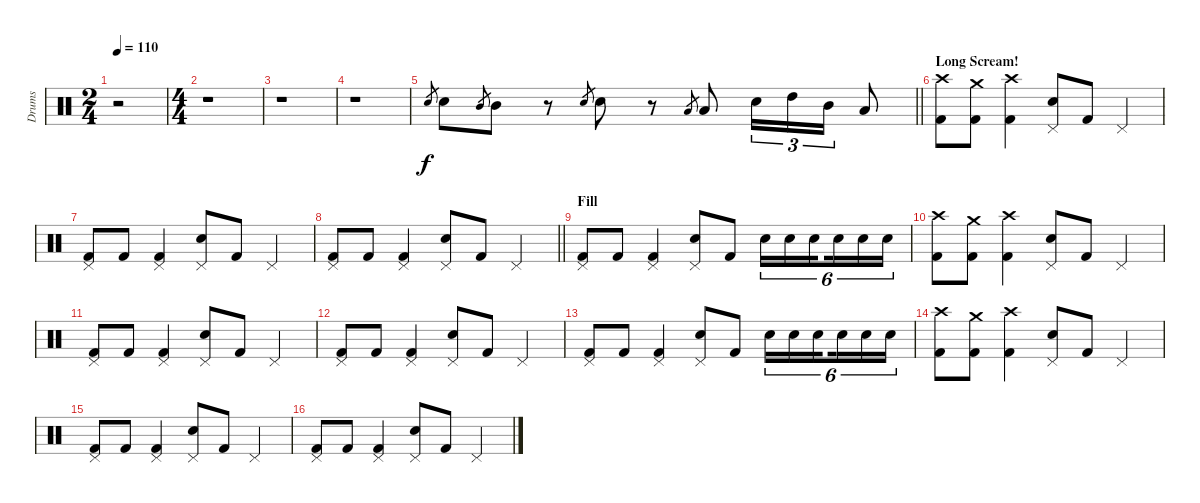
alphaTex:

\track ("Drums" "Drums") {instrument percussion}
\staff {score}
\articulation defaults
\ts (2 4)
\tempo 110
\clef neutral
\ks c
r.2{dy f} |
\ts (4 4)
r.1 |
r.1 |
r.1 |
\barLineRight lightlight "Electric Snare (hit)".8{gr} "Electric Snare (hit)".8 "Mid Tom (hit)".8{gr} "Mid Tom (hit)".8
r.8 "Electric Snare (hit)".8{gr} "Electric Snare (hit)".8 r.8 "Low Tom (hit)".8{gr} "Low Tom (hit)".8 "Electric Snare (hit)".16{tu (3 2)} "High Tom (hit)".16{tu (3 2)} "Mid Tom (hit)".16{tu (3 2)} "Low Tom (hit)".8 |
\section ("" "Long Scream!")
("Crash high (hit)" "Kick (hit) 2").8 ("Crash medium (hit)" "Kick (hit) 2").8 ("Crash high (hit)" "Kick (hit) 2").4 ("Pedal Hi-Hat (hit)" "Electric Snare (hit)").8 "Kick (hit) 2".8 "Pedal Hi-Hat (hit)".4 |
("Pedal Hi-Hat (hit)" "Kick (hit) 2").8 "Kick (hit) 2".8 ("Pedal Hi-Hat (hit)" "Kick (hit) 2").4 ("Pedal Hi-Hat (hit)" "Electric Snare (hit)").8 "Kick (hit) 2".8 "Pedal Hi-Hat (hit)".4 |
\barLineRight lightlight
("Pedal Hi-Hat (hit)" "Kick (hit) 2").8 "Kick (hit) 2".8 ("Pedal Hi-Hat (hit)" "Kick (hit) 2").4 ("Pedal Hi-Hat (hit)" "Electric Snare (hit)").8 "Kick (hit) 2".8 "Pedal Hi-Hat (hit)".4 |
\section ("" "Fill")
("Pedal Hi-Hat (hit)" "Kick (hit) 2").8 "Kick (hit) 2".8 ("Pedal Hi-Hat (hit)" "Kick (hit) 2").4 ("Pedal Hi-Hat (hit)" "Electric Snare (hit)").8 "Kick (hit) 2".8 "Electric Snare (hit)".16{tu (6 4)} "Electric Snare (hit)".16{tu (6 4)} "Electric Snare (hit)".16{tu (6 4) beam splitsecondary} "Electric Snare (hit)".16{tu (6 4)} "Electric Snare (hit)".16{tu (6 4)} "Electric Snare (hit)".16{tu (6 4)} |
("Crash high (hit)" "Kick (hit) 2").8 ("Crash medium (hit)" "Kick (hit) 2").8 ("Crash high (hit)" "Kick (hit) 2").4 ("Pedal Hi-Hat (hit)" "Electric Snare (hit)").8 "Kick (hit) 2".8 "Pedal Hi-Hat (hit)".4 |
("Pedal Hi-Hat (hit)" "Kick (hit) 2").8 "Kick (hit) 2".8 ("Pedal Hi-Hat (hit)" "Kick (hit) 2").4 ("Pedal Hi-Hat (hit)" "Electric Snare (hit)").8 "Kick (hit) 2".8 "Pedal Hi-Hat (hit)".4 |
("Pedal Hi-Hat (hit)" "Kick (hit) 2").8 "Kick (hit) 2".8 ("Pedal Hi-Hat (hit)" "Kick (hit) 2").4 ("Pedal Hi-Hat (hit)" "Electric Snare (hit)").8 "Kick (hit) 2".8 "Pedal Hi-Hat (hit)".4 |
("Pedal Hi-Hat (hit)" "Kick (hit) 2").8 "Kick (hit) 2".8 ("Pedal Hi-Hat (hit)" "Kick (hit) 2").4 ("Pedal Hi-Hat (hit)" "Electric Snare (hit)").8 "Kick (hit) 2".8 "Electric Snare (hit)".16{tu (6 4)} "Electric Snare (hit)".16{tu (6 4)} "Electric Snare (hit)".16{tu (6 4) beam splitsecondary} "Electric Snare (hit)".16{tu (6 4)} "Electric Snare (hit)".16{tu (6 4)} "Electric Snare (hit)".16{tu (6 4)} |
("Crash high (hit)" "Kick (hit) 2").8 ("Crash medium (hit)" "Kick (hit) 2").8 ("Crash high (hit)" "Kick (hit) 2").4 ("Pedal Hi-Hat (hit)" "Electric Snare (hit)").8 "Kick (hit) 2".8 "Pedal Hi-Hat (hit)".4 |
("Pedal Hi-Hat (hit)" "Kick (hit) 2").8 "Kick (hit) 2".8 ("Pedal Hi-Hat (hit)" "Kick (hit) 2").4 ("Pedal Hi-Hat (hit)" "Electric Snare (hit)").8 "Kick (hit) 2".8 "Pedal Hi-Hat (hit)".4 |
("Pedal Hi-Hat (hit)" "Kick (hit) 2").8 "Kick (hit) 2".8 ("Pedal Hi-Hat (hit)" "Kick (hit) 2").4 ("Pedal Hi-Hat (hit)" "Electric Snare (hit)").8 "Kick (hit) 2".8 "Pedal Hi-Hat (hit)".4
